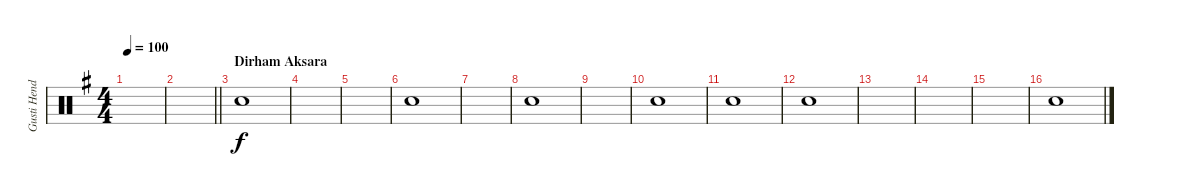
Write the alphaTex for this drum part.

\track ("Gusti Hendy" "Gusti Hend") {instrument percussion}
\staff {score}
\articulation defaults
\ts (4 4)
\tempo 100
\clef neutral
\ks g
|
\barLineRight lightlight
|
\section ("" "Dirham Aksara")
"Snare (hit)".1{volume 0} |
|
|
"Snare (hit)".1 |
|
"Snare (hit)".1 |
|
"Snare (hit)".1 |
"Snare (hit)".1 |
"Snare (hit)".1 |
|
|
|
"Snare (hit)".1
